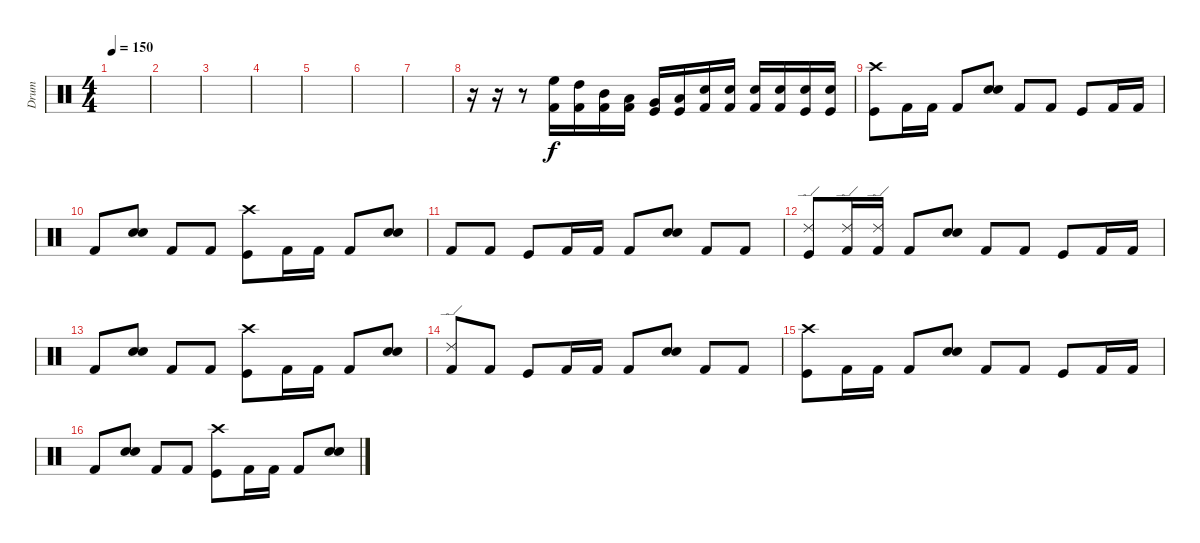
\track ("Drum" "Drum") {instrument percussion}
\staff {score}
\articulation defaults
\ts (4 4)
\tempo 150
\clef neutral
\ks c
|
|
|
|
|
|
|
r.16 r.16 r.8 ("High Floor Tom (hit)" "Kick (hit) 2").16 ("High Tom (hit)" "Kick (hit) 2").16 ("Mid Tom (hit)" "Kick (hit) 2").16 ("Low Tom (hit)" "Kick (hit) 2").16 ("Very Low Tom (hit)" "Kick (hit)").16 ("Low Floor Tom (hit)" "Kick (hit)").16 ("Snare (hit) 2" "Kick (hit) 2").16 ("Snare (hit) 2" "Kick (hit) 2").16 ("Snare (hit) 2" "Kick (hit) 2").16 ("Electric Snare (hit)" "Kick (hit) 2").16 ("Electric Snare (hit)" "Kick (hit)").16 ("Electric Snare (hit)" "Kick (hit)").16 |
("Crash high (hit)" "Kick (hit)").8 "Kick (hit) 2".16 "Kick (hit) 2".16 "Kick (hit) 2".8 ("Snare (hit) 2" "Electric Snare (hit)").8 "Kick (hit) 2".8 "Kick (hit) 2".8 "Kick (hit)".8 "Kick (hit) 2".16 "Kick (hit) 2".16 |
"Kick (hit) 2".8 ("Snare (hit) 2" "Electric Snare (hit)").8 "Kick (hit) 2".8 "Kick (hit) 2".8 ("Crash high (hit)" "Kick (hit)").8 "Kick (hit) 2".16 "Kick (hit) 2".16 "Kick (hit) 2".8 ("Snare (hit) 2" "Electric Snare (hit)").8 |
"Kick (hit) 2".8 "Kick (hit) 2".8 "Kick (hit)".8 "Kick (hit) 2".16 "Kick (hit) 2".16 "Kick (hit) 2".8 ("Snare (hit) 2" "Electric Snare (hit)").8 "Kick (hit) 2".8 "Kick (hit) 2".8 |
("Ride (edge) 2" "Kick (hit)").8 ("Ride (edge) 2" "Kick (hit) 2").16 ("Ride (edge) 2" "Kick (hit) 2").16 "Kick (hit) 2".8 ("Snare (hit) 2" "Electric Snare (hit)").8 "Kick (hit) 2".8 "Kick (hit) 2".8 "Kick (hit)".8 "Kick (hit) 2".16 "Kick (hit) 2".16 |
"Kick (hit) 2".8 ("Snare (hit) 2" "Electric Snare (hit)").8 "Kick (hit) 2".8 "Kick (hit) 2".8 ("Crash high (hit)" "Kick (hit)").8 "Kick (hit) 2".16 "Kick (hit) 2".16 "Kick (hit) 2".8 ("Snare (hit) 2" "Electric Snare (hit)").8 |
("Ride (edge) 2" "Kick (hit) 2").8 "Kick (hit) 2".8 "Kick (hit)".8 "Kick (hit) 2".16 "Kick (hit) 2".16 "Kick (hit) 2".8 ("Snare (hit) 2" "Electric Snare (hit)").8 "Kick (hit) 2".8 "Kick (hit) 2".8 |
("Crash high (hit)" "Kick (hit)").8 "Kick (hit) 2".16 "Kick (hit) 2".16 "Kick (hit) 2".8 ("Snare (hit) 2" "Electric Snare (hit)").8 "Kick (hit) 2".8 "Kick (hit) 2".8 "Kick (hit)".8 "Kick (hit) 2".16 "Kick (hit) 2".16 |
"Kick (hit) 2".8 ("Snare (hit) 2" "Electric Snare (hit)").8 "Kick (hit) 2".8 "Kick (hit) 2".8 ("Crash high (hit)" "Kick (hit)").8 "Kick (hit) 2".16 "Kick (hit) 2".16 "Kick (hit) 2".8 ("Snare (hit) 2" "Electric Snare (hit)").8
